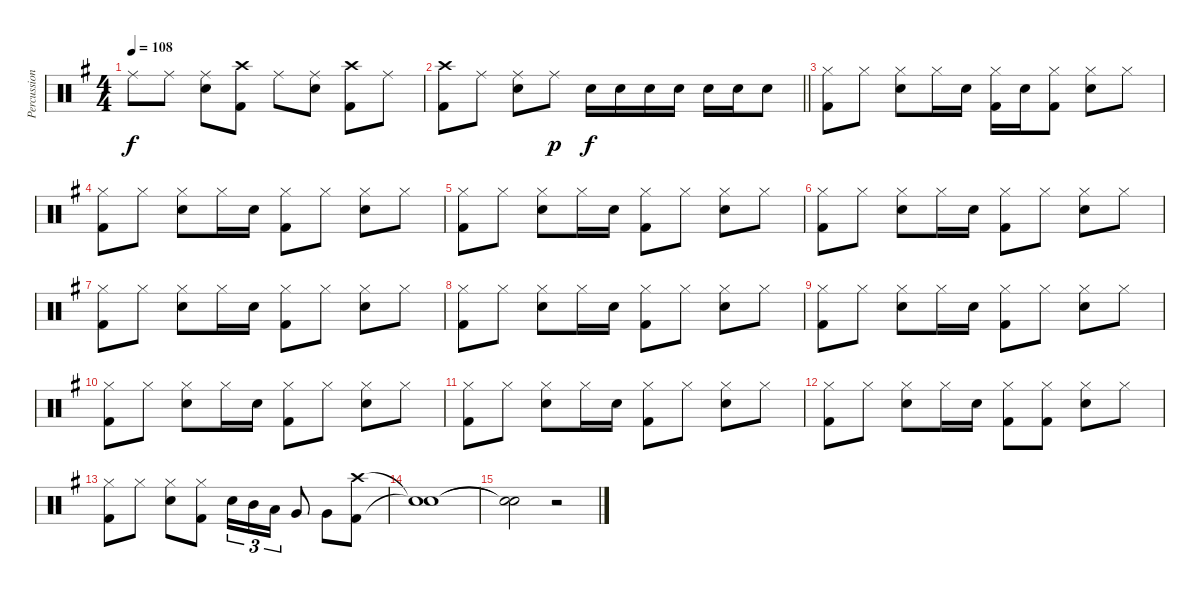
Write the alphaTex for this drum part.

\track ("Percussion" "Percussion") {instrument percussion}
\staff {score}
\articulation defaults
\ts (4 4)
\tempo 108
\clef neutral
\ks g "Ride (middle)".8{dy f} "Ride (middle)".8
("Ride (middle)" "Snare (hit) 2").8 ("Crash high (hit)" "Kick (hit) 2").8 "Ride (middle)".8 ("Ride (middle)" "Snare (hit) 2").8 ("Crash high (hit)" "Kick (hit) 2").8 "Ride (middle)".8 |
\barLineRight lightlight
("Crash high (hit)" "Kick (hit) 2").8 "Ride (middle)".8 ("Ride (middle)" "Snare (hit) 2").8 "Ride (middle)".8{dy p} "Snare (hit) 2".16{dy f} "Snare (hit) 2".16 "Snare (hit) 2".16 "Snare (hit) 2".16 "Snare (hit) 2".16 "Snare (hit) 2".16 "Snare (hit) 2".8 |
("Hi-Hat (closed)" "Kick (hit) 2").8 "Hi-Hat (closed)".8 ("Hi-Hat (closed)" "Snare (hit) 2").8 "Hi-Hat (closed)".16 "Snare (hit) 2".16 ("Hi-Hat (closed)" "Kick (hit) 2").16 "Snare (hit) 2".16 ("Hi-Hat (closed)" "Kick (hit) 2").8 ("Hi-Hat (closed)" "Snare (hit) 2").8 "Hi-Hat (closed)".8 |
("Hi-Hat (closed)" "Kick (hit) 2").8 "Hi-Hat (closed)".8 ("Hi-Hat (closed)" "Snare (hit) 2").8 "Hi-Hat (closed)".16 "Snare (hit) 2".16 ("Hi-Hat (closed)" "Kick (hit) 2").8 "Hi-Hat (closed)".8 ("Hi-Hat (closed)" "Snare (hit) 2").8 "Hi-Hat (closed)".8 |
("Hi-Hat (closed)" "Kick (hit) 2").8 "Hi-Hat (closed)".8 ("Hi-Hat (closed)" "Snare (hit) 2").8 "Hi-Hat (closed)".16 "Snare (hit) 2".16 ("Hi-Hat (closed)" "Kick (hit) 2").8 "Hi-Hat (closed)".8 ("Hi-Hat (closed)" "Snare (hit) 2").8 "Hi-Hat (closed)".8 |
("Hi-Hat (closed)" "Kick (hit) 2").8 "Hi-Hat (closed)".8 ("Hi-Hat (closed)" "Snare (hit) 2").8 "Hi-Hat (closed)".16 "Snare (hit) 2".16 ("Hi-Hat (closed)" "Kick (hit) 2").8 "Hi-Hat (closed)".8 ("Hi-Hat (closed)" "Snare (hit) 2").8 "Hi-Hat (closed)".8 |
("Hi-Hat (closed)" "Kick (hit) 2").8 "Hi-Hat (closed)".8 ("Hi-Hat (closed)" "Snare (hit) 2").8 "Hi-Hat (closed)".16 "Snare (hit) 2".16 ("Hi-Hat (closed)" "Kick (hit) 2").8 "Hi-Hat (closed)".8 ("Hi-Hat (closed)" "Snare (hit) 2").8 "Hi-Hat (closed)".8 |
("Hi-Hat (closed)" "Kick (hit) 2").8 "Hi-Hat (closed)".8 ("Hi-Hat (closed)" "Snare (hit) 2").8 "Hi-Hat (closed)".16 "Snare (hit) 2".16 ("Hi-Hat (closed)" "Kick (hit) 2").8 "Hi-Hat (closed)".8 ("Hi-Hat (closed)" "Snare (hit) 2").8 "Hi-Hat (closed)".8 |
("Hi-Hat (closed)" "Kick (hit) 2").8 "Hi-Hat (closed)".8 ("Hi-Hat (closed)" "Snare (hit) 2").8 "Hi-Hat (closed)".16 "Snare (hit) 2".16 ("Hi-Hat (closed)" "Kick (hit) 2").8 "Hi-Hat (closed)".8 ("Hi-Hat (closed)" "Snare (hit) 2").8 "Hi-Hat (closed)".8 |
("Hi-Hat (closed)" "Kick (hit) 2").8 "Hi-Hat (closed)".8 ("Hi-Hat (closed)" "Snare (hit) 2").8 "Hi-Hat (closed)".16 "Snare (hit) 2".16 ("Hi-Hat (closed)" "Kick (hit) 2").8 "Hi-Hat (closed)".8 ("Hi-Hat (closed)" "Snare (hit) 2").8 "Hi-Hat (closed)".8 |
("Hi-Hat (closed)" "Kick (hit) 2").8 "Hi-Hat (closed)".8 ("Hi-Hat (closed)" "Snare (hit) 2").8 "Hi-Hat (closed)".16 "Snare (hit) 2".16 ("Hi-Hat (closed)" "Kick (hit) 2").8 "Hi-Hat (closed)".8 ("Hi-Hat (closed)" "Snare (hit) 2").8 "Hi-Hat (closed)".8 |
("Hi-Hat (closed)" "Kick (hit) 2").8 "Hi-Hat (closed)".8 ("Hi-Hat (closed)" "Snare (hit) 2").8 "Hi-Hat (closed)".16 "Snare (hit) 2".16 ("Hi-Hat (closed)" "Kick (hit) 2").8 ("Hi-Hat (closed)" "Kick (hit) 2").8 ("Hi-Hat (closed)" "Snare (hit) 2").8 "Hi-Hat (closed)".8 |
("Hi-Hat (closed)" "Kick (hit) 2").8 "Hi-Hat (closed)".8 ("Hi-Hat (closed)" "Snare (hit) 2").8 ("Hi-Hat (closed)" "Kick (hit) 2").8 "Snare (hit) 2".16{tu (3 2)} "Mid Tom (hit)".16{tu (3 2)} "Low Tom (hit)".16{tu (3 2)} "Very Low Tom (hit)".8 "Very Low Tom (hit)".8 ("Crash high (hit)" "Kick (hit) 2").8 |
("Snare (hit)"{t} "Snare (hit)"{t}).1 |
("Snare (hit)"{t} "Snare (hit)"{t}).2 r.2
